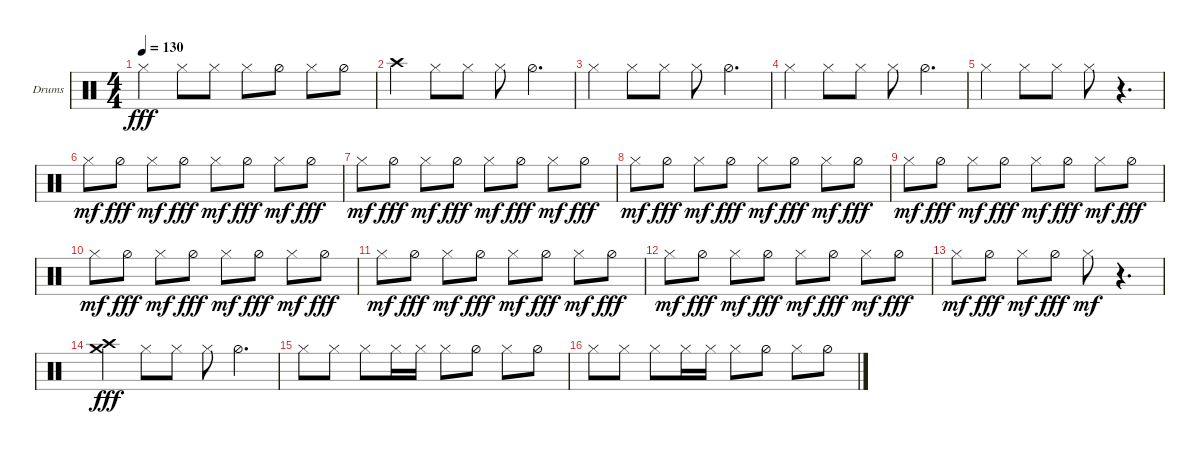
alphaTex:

\defaultSystemsLayout 4
\bracketExtendMode groupsimilarinstruments
\firstSystemTrackNameOrientation horizontal
\otherSystemsTrackNameOrientation horizontal
\track ("Helders" "Drums") {instrument percussion}
\staff {score}
\articulation defaults
\ts (4 4)
\tempo 130
\clef neutral
\ks c "Hi-Hat (closed)".4{dy fff} "Hi-Hat (closed)".8 "Hi-Hat (closed)".8 "Hi-Hat (closed)".8 "Hi-Hat (half)".8 "Hi-Hat (closed)".8 "Hi-Hat (half)".8
|
"Crash high (hit)".4 "Hi-Hat (closed)".8 "Hi-Hat (closed)".8 "Hi-Hat (closed)".8 "Hi-Hat (half)".4{d} |
"Hi-Hat (closed)".4 "Hi-Hat (closed)".8 "Hi-Hat (closed)".8 "Hi-Hat (closed)".8 "Hi-Hat (half)".4{d} |
"Hi-Hat (closed)".4 "Hi-Hat (closed)".8 "Hi-Hat (closed)".8 "Hi-Hat (closed)".8 "Hi-Hat (half)".4{d} |
"Hi-Hat (closed)".4 "Hi-Hat (closed)".8 "Hi-Hat (closed)".8 "Hi-Hat (closed)".8 r.4{d} |
"Hi-Hat (closed)".8{dy mf} "Hi-Hat (half)".8{dy fff} "Hi-Hat (closed)".8{dy mf} "Hi-Hat (half)".8{dy fff} "Hi-Hat (closed)".8{dy mf} "Hi-Hat (half)".8{dy fff} "Hi-Hat (closed)".8{dy mf} "Hi-Hat (half)".8{dy fff} |
"Hi-Hat (closed)".8{dy mf} "Hi-Hat (half)".8{dy fff} "Hi-Hat (closed)".8{dy mf} "Hi-Hat (half)".8{dy fff} "Hi-Hat (closed)".8{dy mf} "Hi-Hat (half)".8{dy fff} "Hi-Hat (closed)".8{dy mf} "Hi-Hat (half)".8{dy fff} |
"Hi-Hat (closed)".8{dy mf} "Hi-Hat (half)".8{dy fff} "Hi-Hat (closed)".8{dy mf} "Hi-Hat (half)".8{dy fff} "Hi-Hat (closed)".8{dy mf} "Hi-Hat (half)".8{dy fff} "Hi-Hat (closed)".8{dy mf} "Hi-Hat (half)".8{dy fff} |
"Hi-Hat (closed)".8{dy mf} "Hi-Hat (half)".8{dy fff} "Hi-Hat (closed)".8{dy mf} "Hi-Hat (half)".8{dy fff} "Hi-Hat (closed)".8{dy mf} "Hi-Hat (half)".8{dy fff} "Hi-Hat (closed)".8{dy mf} "Hi-Hat (half)".8{dy fff} |
"Hi-Hat (closed)".8{dy mf} "Hi-Hat (half)".8{dy fff} "Hi-Hat (closed)".8{dy mf} "Hi-Hat (half)".8{dy fff} "Hi-Hat (closed)".8{dy mf} "Hi-Hat (half)".8{dy fff} "Hi-Hat (closed)".8{dy mf} "Hi-Hat (half)".8{dy fff} |
"Hi-Hat (closed)".8{dy mf} "Hi-Hat (half)".8{dy fff} "Hi-Hat (closed)".8{dy mf} "Hi-Hat (half)".8{dy fff} "Hi-Hat (closed)".8{dy mf} "Hi-Hat (half)".8{dy fff} "Hi-Hat (closed)".8{dy mf} "Hi-Hat (half)".8{dy fff} |
"Hi-Hat (closed)".8{dy mf} "Hi-Hat (half)".8{dy fff} "Hi-Hat (closed)".8{dy mf} "Hi-Hat (half)".8{dy fff} "Hi-Hat (closed)".8{dy mf} "Hi-Hat (half)".8{dy fff} "Hi-Hat (closed)".8{dy mf} "Hi-Hat (half)".8{dy fff} |
"Hi-Hat (closed)".8{dy mf} "Hi-Hat (half)".8{dy fff} "Hi-Hat (closed)".8{dy mf} "Hi-Hat (half)".8{dy fff} "Hi-Hat (closed)".8{dy mf} r.4{d} |
("Crash high (hit)" "Crash medium (hit)").4{dy fff} "Hi-Hat (closed)".8 "Hi-Hat (closed)".8 "Hi-Hat (closed)".8 "Hi-Hat (half)".4{d} |
"Hi-Hat (closed)".8 "Hi-Hat (closed)".8 "Hi-Hat (closed)".8 "Hi-Hat (closed)".16 "Hi-Hat (closed)".16 "Hi-Hat (closed)".8 "Hi-Hat (half)".8 "Hi-Hat (closed)".8 "Hi-Hat (half)".8 |
"Hi-Hat (closed)".8 "Hi-Hat (closed)".8 "Hi-Hat (closed)".8 "Hi-Hat (closed)".16 "Hi-Hat (closed)".16 "Hi-Hat (closed)".8 "Hi-Hat (half)".8 "Hi-Hat (closed)".8 "Hi-Hat (half)".8
